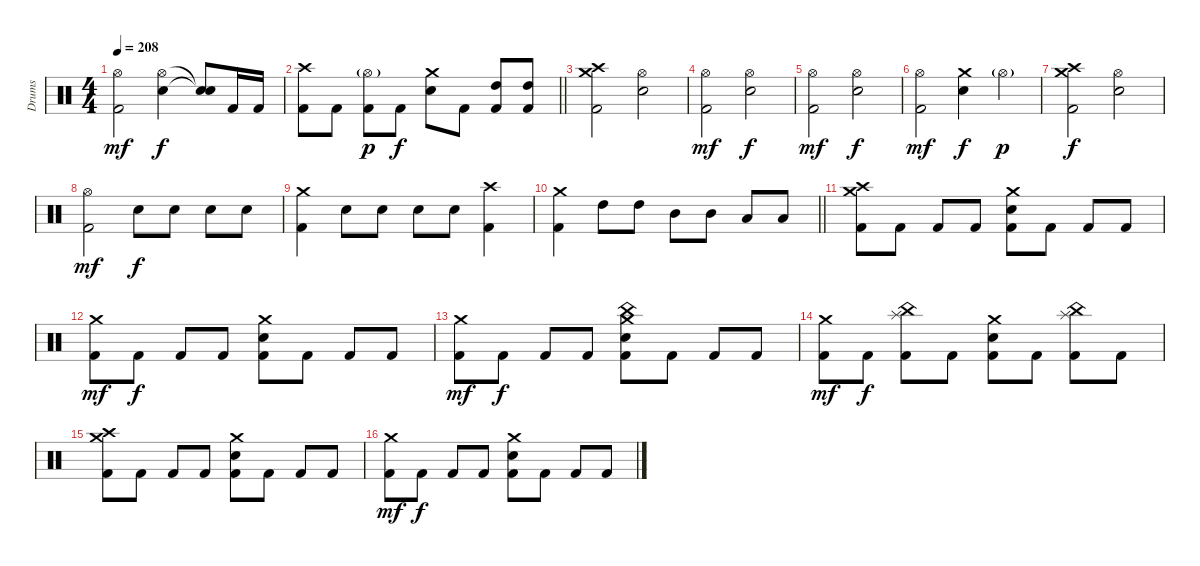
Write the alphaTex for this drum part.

\track ("Drums" "Drums") {instrument percussion}
\staff {score}
\articulation defaults
\ts (4 4)
\tempo 208
\clef neutral
\ks c
("Hi-Hat (open)" "Kick (hit) 2").2{dy mf} ("Hi-Hat (open)" "Electric Snare (hit)").4{dy f} ("Snare (hit)"{t} "Snare (hit)"{t}).8 "Kick (hit) 2".16 "Kick (hit) 2".16 |
\barLineRight lightlight
("Crash high (hit)" "Kick (hit) 2").8 "Kick (hit) 2".8 ("Hi-Hat (open)"{g} "Kick (hit) 2").8{dy p} "Kick (hit) 2".8{dy f} ("Crash medium (hit)" "Electric Snare (hit)").8 "Kick (hit) 2".8 ("High Tom (hit)" "Kick (hit) 2").8 ("High Tom (hit)" "Kick (hit) 2").8 |
("Crash high (hit)" "Crash medium (hit)" "Kick (hit) 2").2 ("Hi-Hat (open)" "Electric Snare (hit)").2 |
("Hi-Hat (open)" "Kick (hit) 2").2{dy mf} ("Hi-Hat (open)" "Electric Snare (hit)").2{dy f} |
("Hi-Hat (open)" "Kick (hit) 2").2{dy mf} ("Hi-Hat (open)" "Electric Snare (hit)").2{dy f} |
("Hi-Hat (open)" "Kick (hit) 2").2{dy mf} ("Crash medium (hit)" "Electric Snare (hit)").4{dy f} "Hi-Hat (open)"{g}.4{dy p} |
("Crash high (hit)" "Crash medium (hit)" "Kick (hit) 2").2{dy f} ("Hi-Hat (open)" "Electric Snare (hit)").2 |
("Hi-Hat (open)" "Kick (hit) 2").2{dy mf} "Electric Snare (hit)".8{dy f} "Electric Snare (hit)".8 "Electric Snare (hit)".8 "Electric Snare (hit)".8 |
("Crash medium (hit)" "Kick (hit) 2").4 "Electric Snare (hit)".8 "Electric Snare (hit)".8 "Electric Snare (hit)".8 "Electric Snare (hit)".8 ("Crash high (hit)" "Kick (hit) 2").4 |
\barLineRight lightlight
("Crash medium (hit)" "Kick (hit) 2").4 "High Tom (hit)".8 "High Tom (hit)".8 "Mid Tom (hit)".8 "Mid Tom (hit)".8 "Low Tom (hit)".8 "Low Tom (hit)".8 |
("Crash high (hit)" "Crash medium (hit)" "Kick (hit) 2").8 "Kick (hit) 2".8 "Kick (hit) 2".8 "Kick (hit) 2".8 ("Crash medium (hit)" "Electric Snare (hit)" "Kick (hit) 2").8 "Kick (hit) 2".8 "Kick (hit) 2".8 "Kick (hit) 2".8 |
("Crash medium (hit)" "Kick (hit) 2").8{dy mf} "Kick (hit) 2".8{dy f} "Kick (hit) 2".8 "Kick (hit) 2".8 ("Crash medium (hit)" "Electric Snare (hit)" "Kick (hit) 2").8 "Kick (hit) 2".8 "Kick (hit) 2".8 "Kick (hit) 2".8 |
("Crash medium (hit)" "Kick (hit) 2").8{dy mf} "Kick (hit) 2".8{dy f} "Kick (hit) 2".8 "Kick (hit) 2".8 ("China (hit)" "Crash medium (hit)" "Electric Snare (hit)" "Kick (hit) 2").8 "Kick (hit) 2".8 "Kick (hit) 2".8 "Kick (hit) 2".8 |
("Crash medium (hit)" "Kick (hit) 2").8{dy mf} "Kick (hit) 2".8{dy f} ("China (hit)" "Splash (hit)" "Kick (hit) 2").8 "Kick (hit) 2".8 ("Crash medium (hit)" "Electric Snare (hit)" "Kick (hit) 2").8 "Kick (hit) 2".8 ("China (hit)" "Splash (hit)" "Kick (hit) 2").8 "Kick (hit) 2".8 |
("Crash high (hit)" "Crash medium (hit)" "Kick (hit) 2").8 "Kick (hit) 2".8 "Kick (hit) 2".8 "Kick (hit) 2".8 ("Crash medium (hit)" "Electric Snare (hit)" "Kick (hit) 2").8 "Kick (hit) 2".8 "Kick (hit) 2".8 "Kick (hit) 2".8 |
("Crash medium (hit)" "Kick (hit) 2").8{dy mf} "Kick (hit) 2".8{dy f} "Kick (hit) 2".8 "Kick (hit) 2".8 ("Crash medium (hit)" "Electric Snare (hit)" "Kick (hit) 2").8 "Kick (hit) 2".8 "Kick (hit) 2".8 "Kick (hit) 2".8
